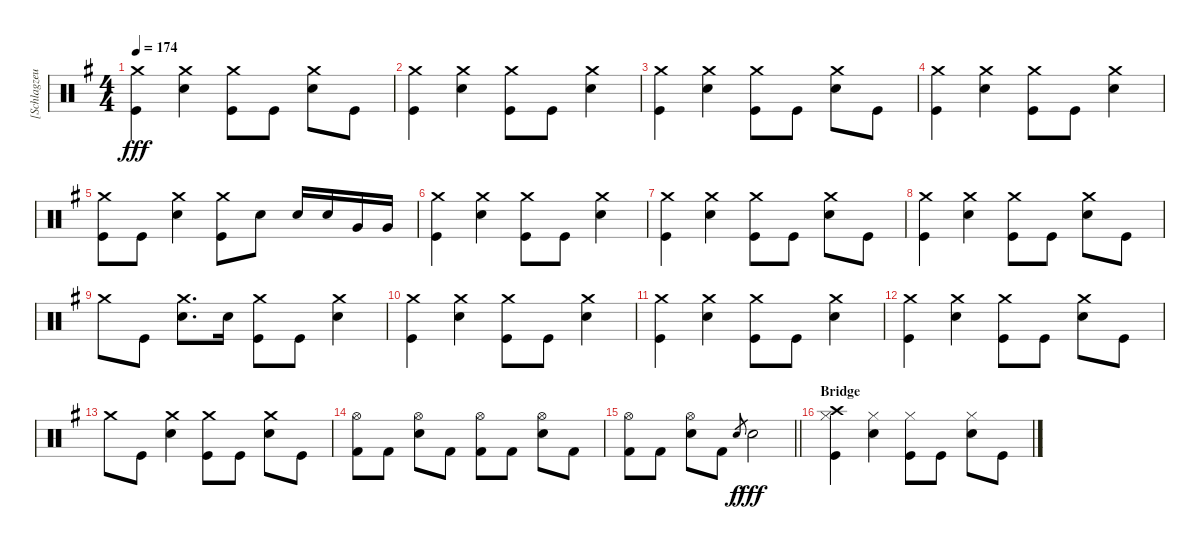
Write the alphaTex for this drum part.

\track ("[Schlagzeug]" "[Schlagzeu") {instrument percussion}
\staff {score}
\articulation defaults
\ts (4 4)
\tempo 174
\clef neutral
\ks g
("Crash medium (hit)" "Kick (hit)").4{dy fff} ("Crash medium (hit)" "Electric Snare (hit)").4 ("Crash medium (hit)" "Kick (hit)").8 "Kick (hit)".8 ("Crash medium (hit)" "Electric Snare (hit)").8 "Kick (hit)".8 |
("Crash medium (hit)" "Kick (hit)").4 ("Crash medium (hit)" "Electric Snare (hit)").4 ("Crash medium (hit)" "Kick (hit)").8 "Kick (hit)".8 ("Crash medium (hit)" "Electric Snare (hit)").4 |
("Crash medium (hit)" "Kick (hit)").4 ("Crash medium (hit)" "Electric Snare (hit)").4 ("Crash medium (hit)" "Kick (hit)").8 "Kick (hit)".8 ("Crash medium (hit)" "Electric Snare (hit)").8 "Kick (hit)".8 |
("Crash medium (hit)" "Kick (hit)").4 ("Crash medium (hit)" "Electric Snare (hit)").4 ("Crash medium (hit)" "Kick (hit)").8 "Kick (hit)".8 ("Crash medium (hit)" "Electric Snare (hit)").4 |
("Crash medium (hit)" "Kick (hit)").8 "Kick (hit)".8 ("Crash medium (hit)" "Electric Snare (hit)").4 ("Crash medium (hit)" "Kick (hit)").8 "Electric Snare (hit)".8 "Electric Snare (hit)".16 "Electric Snare (hit)".16 "Very Low Tom (hit)".16 "Very Low Tom (hit)".16 |
("Crash medium (hit)" "Kick (hit)").4 ("Crash medium (hit)" "Electric Snare (hit)").4 ("Crash medium (hit)" "Kick (hit)").8 "Kick (hit)".8 ("Crash medium (hit)" "Electric Snare (hit)").4 |
("Crash medium (hit)" "Kick (hit)").4 ("Crash medium (hit)" "Electric Snare (hit)").4 ("Crash medium (hit)" "Kick (hit)").8 "Kick (hit)".8 ("Crash medium (hit)" "Electric Snare (hit)").8 "Kick (hit)".8 |
("Crash medium (hit)" "Kick (hit)").4 ("Crash medium (hit)" "Electric Snare (hit)").4 ("Crash medium (hit)" "Kick (hit)").8 "Kick (hit)".8 ("Crash medium (hit)" "Electric Snare (hit)").8 "Kick (hit)".8 |
"Crash medium (hit)".8 "Kick (hit)".8 ("Crash medium (hit)" "Electric Snare (hit)").8{d} "Electric Snare (hit)".16 ("Crash medium (hit)" "Kick (hit)").8 "Kick (hit)".8 ("Crash medium (hit)" "Electric Snare (hit)").4 |
("Crash medium (hit)" "Kick (hit)").4 ("Crash medium (hit)" "Electric Snare (hit)").4 ("Crash medium (hit)" "Kick (hit)").8 "Kick (hit)".8 ("Crash medium (hit)" "Electric Snare (hit)").4 |
("Crash medium (hit)" "Kick (hit)").4 ("Crash medium (hit)" "Electric Snare (hit)").4 ("Crash medium (hit)" "Kick (hit)").8 "Kick (hit)".8 ("Crash medium (hit)" "Electric Snare (hit)").4 |
("Crash medium (hit)" "Kick (hit)").4 ("Crash medium (hit)" "Electric Snare (hit)").4 ("Crash medium (hit)" "Kick (hit)").8 "Kick (hit)".8 ("Crash medium (hit)" "Electric Snare (hit)").8 "Kick (hit)".8 |
"Crash medium (hit)".8 "Kick (hit)".8 ("Crash medium (hit)" "Electric Snare (hit)").4 ("Crash medium (hit)" "Kick (hit)").8 "Kick (hit)".8 ("Crash medium (hit)" "Electric Snare (hit)").8 "Kick (hit)".8 |
("Hi-Hat (open)" "Kick (hit) 2").8 "Kick (hit) 2".8 ("Hi-Hat (open)" "Electric Snare (hit)").8 "Kick (hit) 2".8 ("Hi-Hat (open)" "Kick (hit) 2").8 "Kick (hit) 2".8 ("Hi-Hat (open)" "Electric Snare (hit)").8 "Kick (hit) 2".8 |
\barLineRight lightlight
("Hi-Hat (open)" "Kick (hit) 2").8 "Kick (hit) 2".8 ("Hi-Hat (open)" "Electric Snare (hit)").8 "Kick (hit) 2".8 "Electric Snare (hit)".8{gr dy f} "Electric Snare (hit)".2{dy fff} |
\section ("" "Bridge")
("Crash high (hit)" "Hi-Hat (closed)" "Kick (hit)").4 ("Hi-Hat (closed)" "Electric Snare (hit)").4 ("Hi-Hat (closed)" "Kick (hit)").8 "Kick (hit)".8 ("Hi-Hat (closed)" "Electric Snare (hit)").8 "Kick (hit)".8
